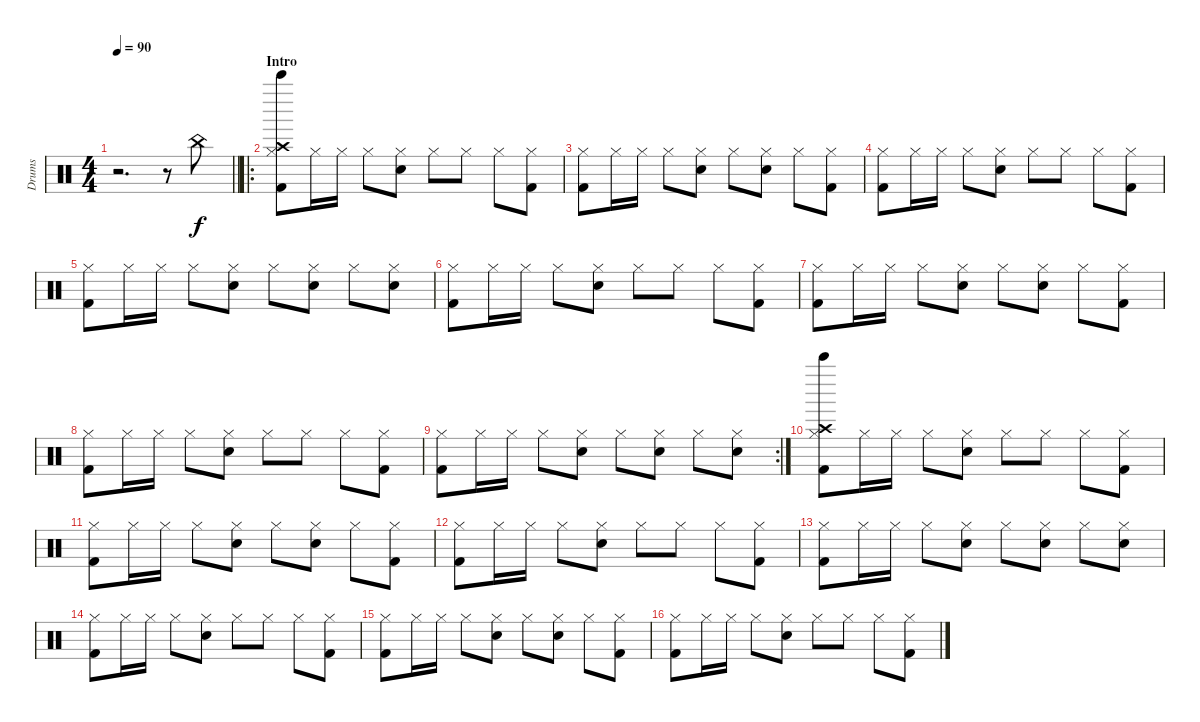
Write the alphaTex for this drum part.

\track ("Drums" "Drums") {instrument percussion}
\staff {score}
\articulation defaults
\ts (4 4)
\tempo 90
\clef neutral
\barLineRight lightlight
\ks c
r.2{d dy f} r.8 "China (hit)".8 |
\ro
\section ("" "Intro")
("Hi-Hat (closed)" "Bell Tree (hit)" "Kick (hit) 2" "Crash high (hit)").8 "Hi-Hat (closed)".16 "Hi-Hat (closed)".16 "Hi-Hat (closed)".8 ("Hi-Hat (closed)" "Snare (hit) 2").8 "Hi-Hat (closed)".8 "Hi-Hat (closed)".8 "Hi-Hat (closed)".8 ("Hi-Hat (closed)" "Kick (hit) 2").8 |
("Hi-Hat (closed)" "Kick (hit) 2").8 "Hi-Hat (closed)".16 "Hi-Hat (closed)".16 "Hi-Hat (closed)".8 ("Hi-Hat (closed)" "Snare (hit) 2").8 "Hi-Hat (closed)".8 ("Hi-Hat (closed)" "Snare (hit) 2").8 "Hi-Hat (closed)".8 ("Hi-Hat (closed)" "Kick (hit) 2").8 |
("Hi-Hat (closed)" "Kick (hit) 2").8 "Hi-Hat (closed)".16 "Hi-Hat (closed)".16 "Hi-Hat (closed)".8 ("Hi-Hat (closed)" "Snare (hit) 2").8 "Hi-Hat (closed)".8 "Hi-Hat (closed)".8 "Hi-Hat (closed)".8 ("Hi-Hat (closed)" "Kick (hit) 2").8 |
("Hi-Hat (closed)" "Kick (hit) 2").8 "Hi-Hat (closed)".16 "Hi-Hat (closed)".16 "Hi-Hat (closed)".8 ("Hi-Hat (closed)" "Snare (hit) 2").8 "Hi-Hat (closed)".8 ("Hi-Hat (closed)" "Snare (hit) 2").8 "Hi-Hat (closed)".8 ("Hi-Hat (closed)" "Snare (hit) 2").8 |
("Hi-Hat (closed)" "Kick (hit) 2").8 "Hi-Hat (closed)".16 "Hi-Hat (closed)".16 "Hi-Hat (closed)".8 ("Hi-Hat (closed)" "Snare (hit) 2").8 "Hi-Hat (closed)".8 "Hi-Hat (closed)".8 "Hi-Hat (closed)".8 ("Hi-Hat (closed)" "Kick (hit) 2").8 |
("Hi-Hat (closed)" "Kick (hit) 2").8 "Hi-Hat (closed)".16 "Hi-Hat (closed)".16 "Hi-Hat (closed)".8 ("Hi-Hat (closed)" "Snare (hit) 2").8 "Hi-Hat (closed)".8 ("Hi-Hat (closed)" "Snare (hit) 2").8 "Hi-Hat (closed)".8 ("Hi-Hat (closed)" "Kick (hit) 2").8 |
("Hi-Hat (closed)" "Kick (hit) 2").8 "Hi-Hat (closed)".16 "Hi-Hat (closed)".16 "Hi-Hat (closed)".8 ("Hi-Hat (closed)" "Snare (hit) 2").8 "Hi-Hat (closed)".8 "Hi-Hat (closed)".8 "Hi-Hat (closed)".8 ("Hi-Hat (closed)" "Kick (hit) 2").8 |
\rc 2
("Hi-Hat (closed)" "Kick (hit) 2").8 "Hi-Hat (closed)".16 "Hi-Hat (closed)".16 "Hi-Hat (closed)".8 ("Hi-Hat (closed)" "Snare (hit) 2").8 "Hi-Hat (closed)".8 ("Hi-Hat (closed)" "Snare (hit) 2").8 "Hi-Hat (closed)".8 ("Hi-Hat (closed)" "Snare (hit) 2").8 |
("Hi-Hat (closed)" "Bell Tree (hit)" "Crash high (hit)" "Kick (hit) 2").8 "Hi-Hat (closed)".16 "Hi-Hat (closed)".16 "Hi-Hat (closed)".8 ("Hi-Hat (closed)" "Snare (hit) 2").8 "Hi-Hat (closed)".8 "Hi-Hat (closed)".8 "Hi-Hat (closed)".8 ("Hi-Hat (closed)" "Kick (hit) 2").8 |
("Hi-Hat (closed)" "Kick (hit) 2").8 "Hi-Hat (closed)".16 "Hi-Hat (closed)".16 "Hi-Hat (closed)".8 ("Hi-Hat (closed)" "Snare (hit) 2").8 "Hi-Hat (closed)".8 ("Hi-Hat (closed)" "Snare (hit) 2").8 "Hi-Hat (closed)".8 ("Hi-Hat (closed)" "Kick (hit) 2").8 |
("Hi-Hat (closed)" "Kick (hit) 2").8 "Hi-Hat (closed)".16 "Hi-Hat (closed)".16 "Hi-Hat (closed)".8 ("Hi-Hat (closed)" "Snare (hit) 2").8 "Hi-Hat (closed)".8 "Hi-Hat (closed)".8 "Hi-Hat (closed)".8 ("Hi-Hat (closed)" "Kick (hit) 2").8 |
("Hi-Hat (closed)" "Kick (hit) 2").8 "Hi-Hat (closed)".16 "Hi-Hat (closed)".16 "Hi-Hat (closed)".8 ("Hi-Hat (closed)" "Snare (hit) 2").8 "Hi-Hat (closed)".8 ("Hi-Hat (closed)" "Snare (hit) 2").8 "Hi-Hat (closed)".8 ("Hi-Hat (closed)" "Snare (hit) 2").8 |
("Hi-Hat (closed)" "Kick (hit) 2").8 "Hi-Hat (closed)".16 "Hi-Hat (closed)".16 "Hi-Hat (closed)".8 ("Hi-Hat (closed)" "Snare (hit) 2").8 "Hi-Hat (closed)".8 "Hi-Hat (closed)".8 "Hi-Hat (closed)".8 ("Hi-Hat (closed)" "Kick (hit) 2").8 |
("Hi-Hat (closed)" "Kick (hit) 2").8 "Hi-Hat (closed)".16 "Hi-Hat (closed)".16 "Hi-Hat (closed)".8 ("Hi-Hat (closed)" "Snare (hit) 2").8 "Hi-Hat (closed)".8 ("Hi-Hat (closed)" "Snare (hit) 2").8 "Hi-Hat (closed)".8 ("Hi-Hat (closed)" "Kick (hit) 2").8 |
("Hi-Hat (closed)" "Kick (hit) 2").8 "Hi-Hat (closed)".16 "Hi-Hat (closed)".16 "Hi-Hat (closed)".8 ("Hi-Hat (closed)" "Snare (hit) 2").8 "Hi-Hat (closed)".8 "Hi-Hat (closed)".8 "Hi-Hat (closed)".8 ("Hi-Hat (closed)" "Kick (hit) 2").8
